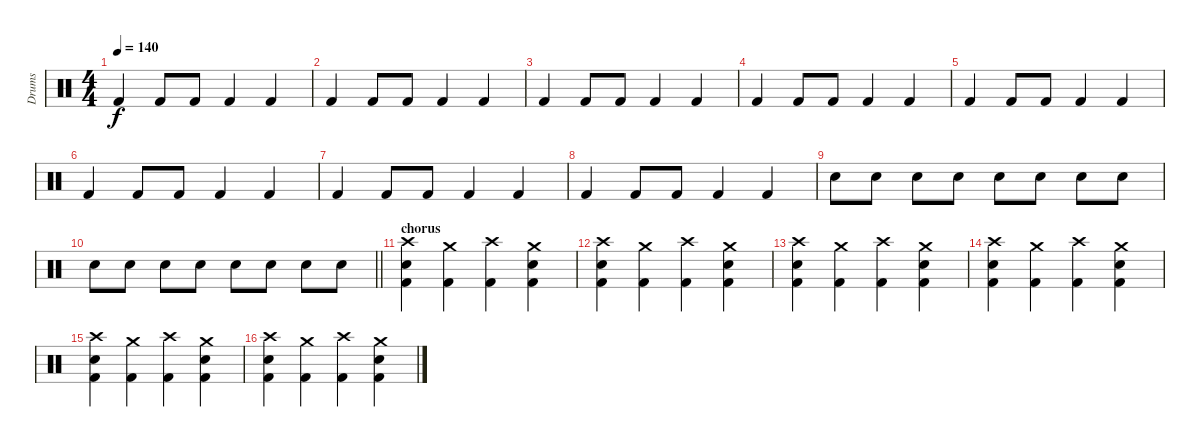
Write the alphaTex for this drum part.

\track ("Drums" "Drums") {instrument percussion}
\staff {score}
\articulation defaults
\ts (4 4)
\tempo 140
\clef neutral
\ks c "Kick (hit) 2".4{dy f} "Kick (hit) 2".8 "Kick (hit) 2".8 "Kick (hit) 2".4 "Kick (hit) 2".4
|
"Kick (hit) 2".4 "Kick (hit) 2".8 "Kick (hit) 2".8 "Kick (hit) 2".4 "Kick (hit) 2".4 |
"Kick (hit) 2".4 "Kick (hit) 2".8 "Kick (hit) 2".8 "Kick (hit) 2".4 "Kick (hit) 2".4 |
"Kick (hit) 2".4 "Kick (hit) 2".8 "Kick (hit) 2".8 "Kick (hit) 2".4 "Kick (hit) 2".4 |
"Kick (hit) 2".4 "Kick (hit) 2".8 "Kick (hit) 2".8 "Kick (hit) 2".4 "Kick (hit) 2".4 |
"Kick (hit) 2".4 "Kick (hit) 2".8 "Kick (hit) 2".8 "Kick (hit) 2".4 "Kick (hit) 2".4 |
"Kick (hit) 2".4 "Kick (hit) 2".8 "Kick (hit) 2".8 "Kick (hit) 2".4 "Kick (hit) 2".4 |
"Kick (hit) 2".4 "Kick (hit) 2".8 "Kick (hit) 2".8 "Kick (hit) 2".4 "Kick (hit) 2".4 |
"Electric Snare (hit)".8 "Electric Snare (hit)".8 "Electric Snare (hit)".8 "Electric Snare (hit)".8 "Electric Snare (hit)".8 "Electric Snare (hit)".8 "Electric Snare (hit)".8 "Electric Snare (hit)".8 |
\barLineRight lightlight "Electric Snare (hit)".8 "Electric Snare (hit)".8 "Electric Snare (hit)".8 "Electric Snare (hit)".8 "Electric Snare (hit)".8 "Electric Snare (hit)".8 "Electric Snare (hit)".8 "Electric Snare (hit)".8
|
\section ("" "chorus")
("Electric Snare (hit)" "Crash high (hit)" "Kick (hit) 2").4 ("Kick (hit) 2" "Crash medium (hit)").4 ("Kick (hit) 2" "Crash high (hit)").4 ("Electric Snare (hit)" "Kick (hit) 2" "Crash medium (hit)").4 |
("Electric Snare (hit)" "Crash high (hit)" "Kick (hit) 2").4 ("Kick (hit) 2" "Crash medium (hit)").4 ("Kick (hit) 2" "Crash high (hit)").4 ("Electric Snare (hit)" "Kick (hit) 2" "Crash medium (hit)").4 |
("Electric Snare (hit)" "Crash high (hit)" "Kick (hit) 2").4 ("Kick (hit) 2" "Crash medium (hit)").4 ("Kick (hit) 2" "Crash high (hit)").4 ("Electric Snare (hit)" "Kick (hit) 2" "Crash medium (hit)").4 |
("Electric Snare (hit)" "Crash high (hit)" "Kick (hit) 2").4 ("Kick (hit) 2" "Crash medium (hit)").4 ("Kick (hit) 2" "Crash high (hit)").4 ("Electric Snare (hit)" "Kick (hit) 2" "Crash medium (hit)").4 |
("Electric Snare (hit)" "Crash high (hit)" "Kick (hit) 2").4 ("Kick (hit) 2" "Crash medium (hit)").4 ("Kick (hit) 2" "Crash high (hit)").4 ("Electric Snare (hit)" "Kick (hit) 2" "Crash medium (hit)").4 |
("Electric Snare (hit)" "Crash high (hit)" "Kick (hit) 2").4 ("Kick (hit) 2" "Crash medium (hit)").4 ("Kick (hit) 2" "Crash high (hit)").4 ("Electric Snare (hit)" "Kick (hit) 2" "Crash medium (hit)").4
